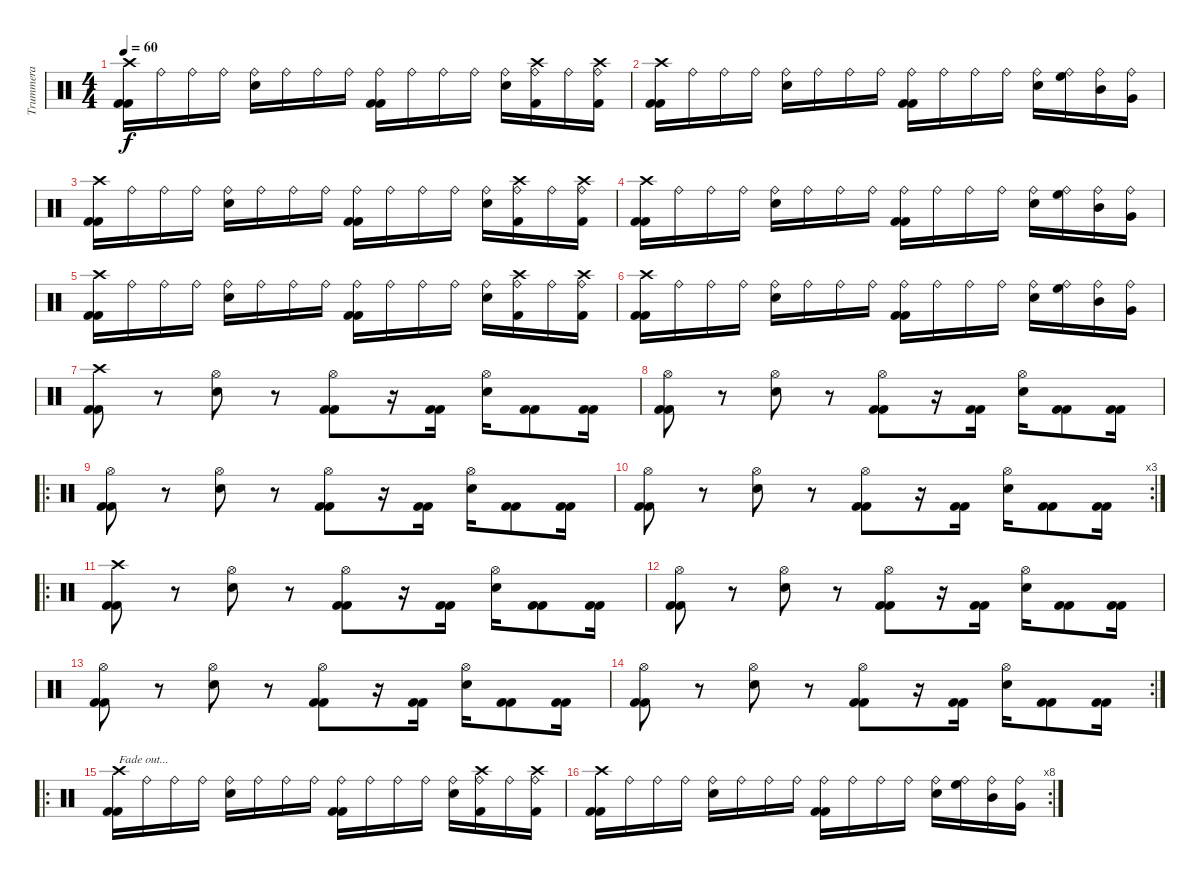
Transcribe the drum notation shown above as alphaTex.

\track ("Trummera" "Trummera") {instrument percussion}
\staff {score}
\articulation defaults
\ts (4 4)
\tempo 60
\clef neutral
\ks c
("Crash high (hit)" "Kick (hit) 2" "Kick (hit) 2").16{dy f} "Ride (bell)".16 "Ride (bell)".16 "Ride (bell)".16 ("Ride (bell)" "Electric Snare (hit)").16 "Ride (bell)".16 "Ride (bell)".16 "Ride (bell)".16 ("Ride (bell)" "Kick (hit) 2" "Kick (hit) 2").16 "Ride (bell)".16 "Ride (bell)".16 "Ride (bell)".16 ("Ride (bell)" "Electric Snare (hit)").16 ("Crash high (hit)" "Ride (bell)" "Kick (hit) 2").16 "Ride (bell)".16 ("Crash high (hit)" "Ride (bell)" "Kick (hit) 2").16 |
("Crash high (hit)" "Kick (hit) 2" "Kick (hit) 2").16 "Ride (bell)".16 "Ride (bell)".16 "Ride (bell)".16 ("Ride (bell)" "Electric Snare (hit)").16 "Ride (bell)".16 "Ride (bell)".16 "Ride (bell)".16 ("Ride (bell)" "Kick (hit) 2" "Kick (hit) 2").16 "Ride (bell)".16 "Ride (bell)".16 "Ride (bell)".16 ("Ride (bell)" "Electric Snare (hit)").16 ("Ride (bell)" "High Floor Tom (hit)").16 ("Ride (bell)" "Mid Tom (hit)").16 ("Ride (bell)" "Very Low Tom (hit)").16 |
("Crash high (hit)" "Kick (hit) 2" "Kick (hit) 2").16 "Ride (bell)".16 "Ride (bell)".16 "Ride (bell)".16 ("Ride (bell)" "Electric Snare (hit)").16 "Ride (bell)".16 "Ride (bell)".16 "Ride (bell)".16 ("Ride (bell)" "Kick (hit) 2" "Kick (hit) 2").16 "Ride (bell)".16 "Ride (bell)".16 "Ride (bell)".16 ("Ride (bell)" "Electric Snare (hit)").16 ("Crash high (hit)" "Ride (bell)" "Kick (hit) 2").16 "Ride (bell)".16 ("Crash high (hit)" "Ride (bell)" "Kick (hit) 2").16 |
("Crash high (hit)" "Kick (hit) 2" "Kick (hit) 2").16 "Ride (bell)".16 "Ride (bell)".16 "Ride (bell)".16 ("Ride (bell)" "Electric Snare (hit)").16 "Ride (bell)".16 "Ride (bell)".16 "Ride (bell)".16 ("Ride (bell)" "Kick (hit) 2" "Kick (hit) 2").16 "Ride (bell)".16 "Ride (bell)".16 "Ride (bell)".16 ("Ride (bell)" "Electric Snare (hit)").16 ("Ride (bell)" "High Floor Tom (hit)").16 ("Ride (bell)" "Mid Tom (hit)").16 ("Ride (bell)" "Very Low Tom (hit)").16 |
("Crash high (hit)" "Kick (hit) 2" "Kick (hit) 2").16 "Ride (bell)".16 "Ride (bell)".16 "Ride (bell)".16 ("Ride (bell)" "Electric Snare (hit)").16 "Ride (bell)".16 "Ride (bell)".16 "Ride (bell)".16 ("Ride (bell)" "Kick (hit) 2" "Kick (hit) 2").16 "Ride (bell)".16 "Ride (bell)".16 "Ride (bell)".16 ("Ride (bell)" "Electric Snare (hit)").16 ("Crash high (hit)" "Ride (bell)" "Kick (hit) 2").16 "Ride (bell)".16 ("Crash high (hit)" "Ride (bell)" "Kick (hit) 2").16 |
("Crash high (hit)" "Kick (hit) 2" "Kick (hit) 2").16 "Ride (bell)".16 "Ride (bell)".16 "Ride (bell)".16 ("Ride (bell)" "Electric Snare (hit)").16 "Ride (bell)".16 "Ride (bell)".16 "Ride (bell)".16 ("Ride (bell)" "Kick (hit) 2" "Kick (hit) 2").16 "Ride (bell)".16 "Ride (bell)".16 "Ride (bell)".16 ("Ride (bell)" "Electric Snare (hit)").16 ("Ride (bell)" "High Floor Tom (hit)").16 ("Ride (bell)" "Mid Tom (hit)").16 ("Ride (bell)" "Very Low Tom (hit)").16 |
("Crash high (hit)" "Kick (hit) 2" "Kick (hit) 2").8 r.8 ("Hi-Hat (open)" "Electric Snare (hit)").8 r.8 ("Hi-Hat (open)" "Kick (hit) 2" "Kick (hit) 2").8 r.16 ("Kick (hit) 2" "Kick (hit) 2").16 ("Hi-Hat (open)" "Electric Snare (hit)").16 ("Kick (hit) 2" "Kick (hit) 2").8 ("Kick (hit) 2" "Kick (hit) 2").16 |
("Hi-Hat (open)" "Kick (hit) 2" "Kick (hit) 2").8 r.8 ("Hi-Hat (open)" "Electric Snare (hit)").8 r.8 ("Hi-Hat (open)" "Kick (hit) 2" "Kick (hit) 2").8 r.16 ("Kick (hit) 2" "Kick (hit) 2").16 ("Hi-Hat (open)" "Electric Snare (hit)").16 ("Kick (hit) 2" "Kick (hit) 2").8 ("Kick (hit) 2" "Kick (hit) 2").16 |
\ro
("Hi-Hat (open)" "Kick (hit) 2" "Kick (hit) 2").8 r.8 ("Hi-Hat (open)" "Electric Snare (hit)").8 r.8 ("Hi-Hat (open)" "Kick (hit) 2" "Kick (hit) 2").8 r.16 ("Kick (hit) 2" "Kick (hit) 2").16 ("Hi-Hat (open)" "Electric Snare (hit)").16 ("Kick (hit) 2" "Kick (hit) 2").8 ("Kick (hit) 2" "Kick (hit) 2").16 |
\rc 3
("Hi-Hat (open)" "Kick (hit) 2" "Kick (hit) 2").8 r.8 ("Hi-Hat (open)" "Electric Snare (hit)").8 r.8 ("Hi-Hat (open)" "Kick (hit) 2" "Kick (hit) 2").8 r.16 ("Kick (hit) 2" "Kick (hit) 2").16 ("Hi-Hat (open)" "Electric Snare (hit)").16 ("Kick (hit) 2" "Kick (hit) 2").8 ("Kick (hit) 2" "Kick (hit) 2").16 |
\ro
("Crash high (hit)" "Kick (hit) 2" "Kick (hit) 2").8 r.8 ("Hi-Hat (open)" "Electric Snare (hit)").8 r.8 ("Hi-Hat (open)" "Kick (hit) 2" "Kick (hit) 2").8 r.16 ("Kick (hit) 2" "Kick (hit) 2").16 ("Hi-Hat (open)" "Electric Snare (hit)").16 ("Kick (hit) 2" "Kick (hit) 2").8 ("Kick (hit) 2" "Kick (hit) 2").16 |
("Hi-Hat (open)" "Kick (hit) 2" "Kick (hit) 2").8 r.8 ("Hi-Hat (open)" "Electric Snare (hit)").8 r.8 ("Hi-Hat (open)" "Kick (hit) 2" "Kick (hit) 2").8 r.16 ("Kick (hit) 2" "Kick (hit) 2").16 ("Hi-Hat (open)" "Electric Snare (hit)").16 ("Kick (hit) 2" "Kick (hit) 2").8 ("Kick (hit) 2" "Kick (hit) 2").16 |
("Hi-Hat (open)" "Kick (hit) 2" "Kick (hit) 2").8 r.8 ("Hi-Hat (open)" "Electric Snare (hit)").8 r.8 ("Hi-Hat (open)" "Kick (hit) 2" "Kick (hit) 2").8 r.16 ("Kick (hit) 2" "Kick (hit) 2").16 ("Hi-Hat (open)" "Electric Snare (hit)").16 ("Kick (hit) 2" "Kick (hit) 2").8 ("Kick (hit) 2" "Kick (hit) 2").16 |
\rc 2
("Hi-Hat (open)" "Kick (hit) 2" "Kick (hit) 2").8 r.8 ("Hi-Hat (open)" "Electric Snare (hit)").8 r.8 ("Hi-Hat (open)" "Kick (hit) 2" "Kick (hit) 2").8 r.16 ("Kick (hit) 2" "Kick (hit) 2").16 ("Hi-Hat (open)" "Electric Snare (hit)").16 ("Kick (hit) 2" "Kick (hit) 2").8 ("Kick (hit) 2" "Kick (hit) 2").16 |
\ro
("Crash high (hit)" "Kick (hit) 2" "Kick (hit) 2").16{txt "Fade out..."} "Ride (bell)".16 "Ride (bell)".16 "Ride (bell)".16 ("Ride (bell)" "Electric Snare (hit)").16 "Ride (bell)".16 "Ride (bell)".16 "Ride (bell)".16 ("Ride (bell)" "Kick (hit) 2" "Kick (hit) 2").16 "Ride (bell)".16 "Ride (bell)".16 "Ride (bell)".16 ("Ride (bell)" "Electric Snare (hit)").16 ("Crash high (hit)" "Ride (bell)" "Kick (hit) 2").16 "Ride (bell)".16 ("Crash high (hit)" "Ride (bell)" "Kick (hit) 2").16 |
\rc 8
("Crash high (hit)" "Kick (hit) 2" "Kick (hit) 2").16 "Ride (bell)".16 "Ride (bell)".16 "Ride (bell)".16 ("Ride (bell)" "Electric Snare (hit)").16 "Ride (bell)".16 "Ride (bell)".16 "Ride (bell)".16 ("Ride (bell)" "Kick (hit) 2" "Kick (hit) 2").16 "Ride (bell)".16 "Ride (bell)".16 "Ride (bell)".16 ("Ride (bell)" "Electric Snare (hit)").16 ("Ride (bell)" "High Floor Tom (hit)").16 ("Ride (bell)" "Mid Tom (hit)").16 ("Ride (bell)" "Very Low Tom (hit)").16
